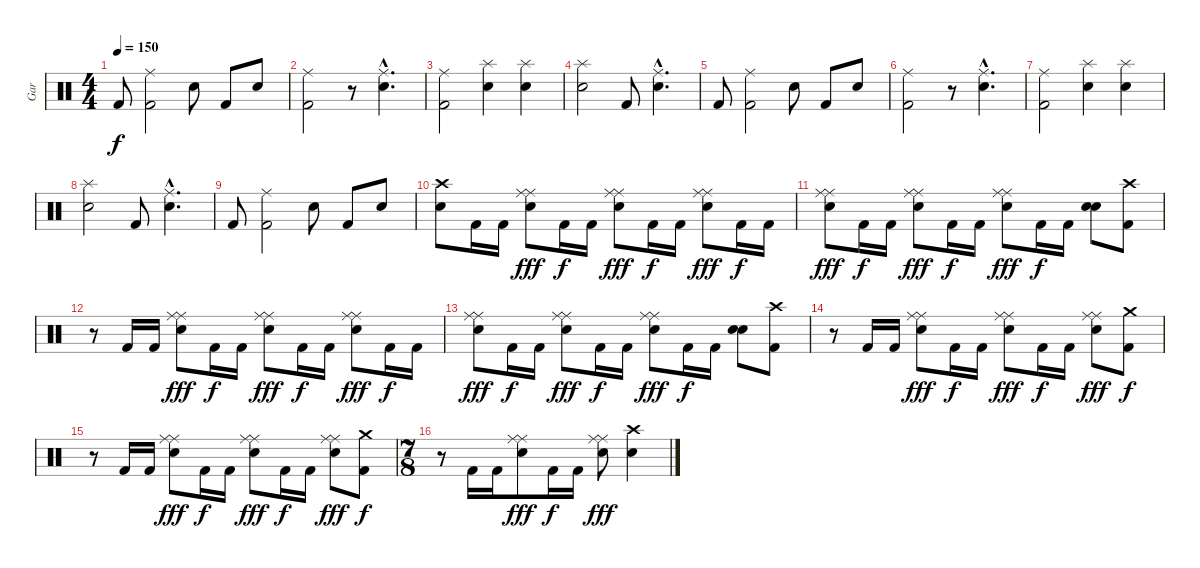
\track ("Gar" "Gar") {instrument percussion}
\staff {score}
\articulation defaults
\ts (4 4)
\tempo 150
\clef neutral
\ks c "Kick (hit) 2".8{dy f}
("Ride (middle)" "Kick (hit) 2").2 "Snare (hit) 2".8 "Kick (hit) 2".8 "Snare (hit) 2".8 |
("Ride (middle)" "Kick (hit) 2").2 r.8 ("Ride (middle)"{hac} "Snare (hit) 2"{hac}).4{d} |
("Ride (middle)" "Kick (hit) 2").2 ("Splash (hit)" "Snare (hit) 2").4 ("Splash (hit)" "Snare (hit) 2").4 |
("Splash (hit)" "Snare (hit) 2").2 "Kick (hit) 2".8 ("Ride (middle)"{hac} "Snare (hit) 2"{hac}).4{d} |
"Kick (hit) 2".8 ("Ride (middle)" "Kick (hit) 2").2 "Snare (hit) 2".8 "Kick (hit) 2".8 "Snare (hit) 2".8 |
("Ride (middle)" "Kick (hit) 2").2 r.8 ("Ride (middle)"{hac} "Snare (hit) 2"{hac}).4{d} |
("Ride (middle)" "Kick (hit) 2").2 ("Splash (hit)" "Snare (hit) 2").4 ("Splash (hit)" "Snare (hit) 2").4 |
("Splash (hit)" "Snare (hit) 2").2 "Kick (hit) 2".8 ("Ride (middle)"{hac} "Snare (hit) 2"{hac}).4{d} |
"Kick (hit) 2".8 ("Ride (middle)" "Kick (hit) 2").2 "Snare (hit) 2".8 "Kick (hit) 2".8 "Snare (hit) 2".8 |
("Crash high (hit)" "Snare (hit) 2").8 "Kick (hit) 2".16 "Kick (hit) 2".16 ("Ride (middle)" "Ride (middle)" "Snare (hit) 2").8{dy fff} "Kick (hit) 2".16{dy f} "Kick (hit) 2".16 ("Ride (middle)" "Ride (middle)" "Snare (hit) 2").8{dy fff} "Kick (hit) 2".16{dy f} "Kick (hit) 2".16 ("Ride (middle)" "Ride (middle)" "Snare (hit) 2").8{dy fff} "Kick (hit) 2".16{dy f} "Kick (hit) 2".16 |
("Ride (middle)" "Ride (middle)" "Snare (hit) 2").8{dy fff} "Kick (hit) 2".16{dy f} "Kick (hit) 2".16 ("Ride (middle)" "Ride (middle)" "Snare (hit) 2").8{dy fff} "Kick (hit) 2".16{dy f} "Kick (hit) 2".16 ("Ride (middle)" "Ride (middle)" "Snare (hit) 2").8{dy fff} "Kick (hit) 2".16{dy f} "Kick (hit) 2".16 ("Snare (hit) 2" "Snare (hit) 2").8 ("Crash high (hit)" "Kick (hit) 2").8 |
r.8 "Kick (hit) 2".16 "Kick (hit) 2".16 ("Ride (middle)" "Ride (middle)" "Snare (hit) 2").8{dy fff} "Kick (hit) 2".16{dy f} "Kick (hit) 2".16 ("Ride (middle)" "Ride (middle)" "Snare (hit) 2").8{dy fff} "Kick (hit) 2".16{dy f} "Kick (hit) 2".16 ("Ride (middle)" "Ride (middle)" "Snare (hit) 2").8{dy fff} "Kick (hit) 2".16{dy f} "Kick (hit) 2".16 |
("Ride (middle)" "Ride (middle)" "Snare (hit) 2").8{dy fff} "Kick (hit) 2".16{dy f} "Kick (hit) 2".16 ("Ride (middle)" "Ride (middle)" "Snare (hit) 2").8{dy fff} "Kick (hit) 2".16{dy f} "Kick (hit) 2".16 ("Ride (middle)" "Ride (middle)" "Snare (hit) 2").8{dy fff} "Kick (hit) 2".16{dy f} "Kick (hit) 2".16 ("Snare (hit) 2" "Snare (hit) 2").8 ("Crash high (hit)" "Kick (hit) 2").8 |
r.8 "Kick (hit) 2".16 "Kick (hit) 2".16 ("Ride (middle)" "Ride (middle)" "Snare (hit) 2").8{dy fff} "Kick (hit) 2".16{dy f} "Kick (hit) 2".16 ("Ride (middle)" "Ride (middle)" "Snare (hit) 2").8{dy fff} "Kick (hit) 2".16{dy f} "Kick (hit) 2".16 ("Ride (middle)" "Ride (middle)" "Snare (hit) 2").8{dy fff} ("Crash medium (hit)" "Kick (hit) 2").8{dy f} |
r.8 "Kick (hit) 2".16 "Kick (hit) 2".16 ("Ride (middle)" "Ride (middle)" "Snare (hit) 2").8{dy fff} "Kick (hit) 2".16{dy f} "Kick (hit) 2".16 ("Ride (middle)" "Ride (middle)" "Snare (hit) 2").8{dy fff} "Kick (hit) 2".16{dy f} "Kick (hit) 2".16 ("Ride (middle)" "Ride (middle)" "Snare (hit) 2").8{dy fff} ("Crash medium (hit)" "Kick (hit) 2").8{dy f} |
\ts (7 8)
r.8 "Kick (hit) 2".16 "Kick (hit) 2".16 ("Ride (middle)" "Ride (middle)" "Snare (hit) 2").8{dy fff} "Kick (hit) 2".16{dy f} "Kick (hit) 2".16 ("Ride (middle)" "Ride (middle)" "Snare (hit) 2").8{dy fff} ("Crash high (hit)" "Snare (hit) 2").4
